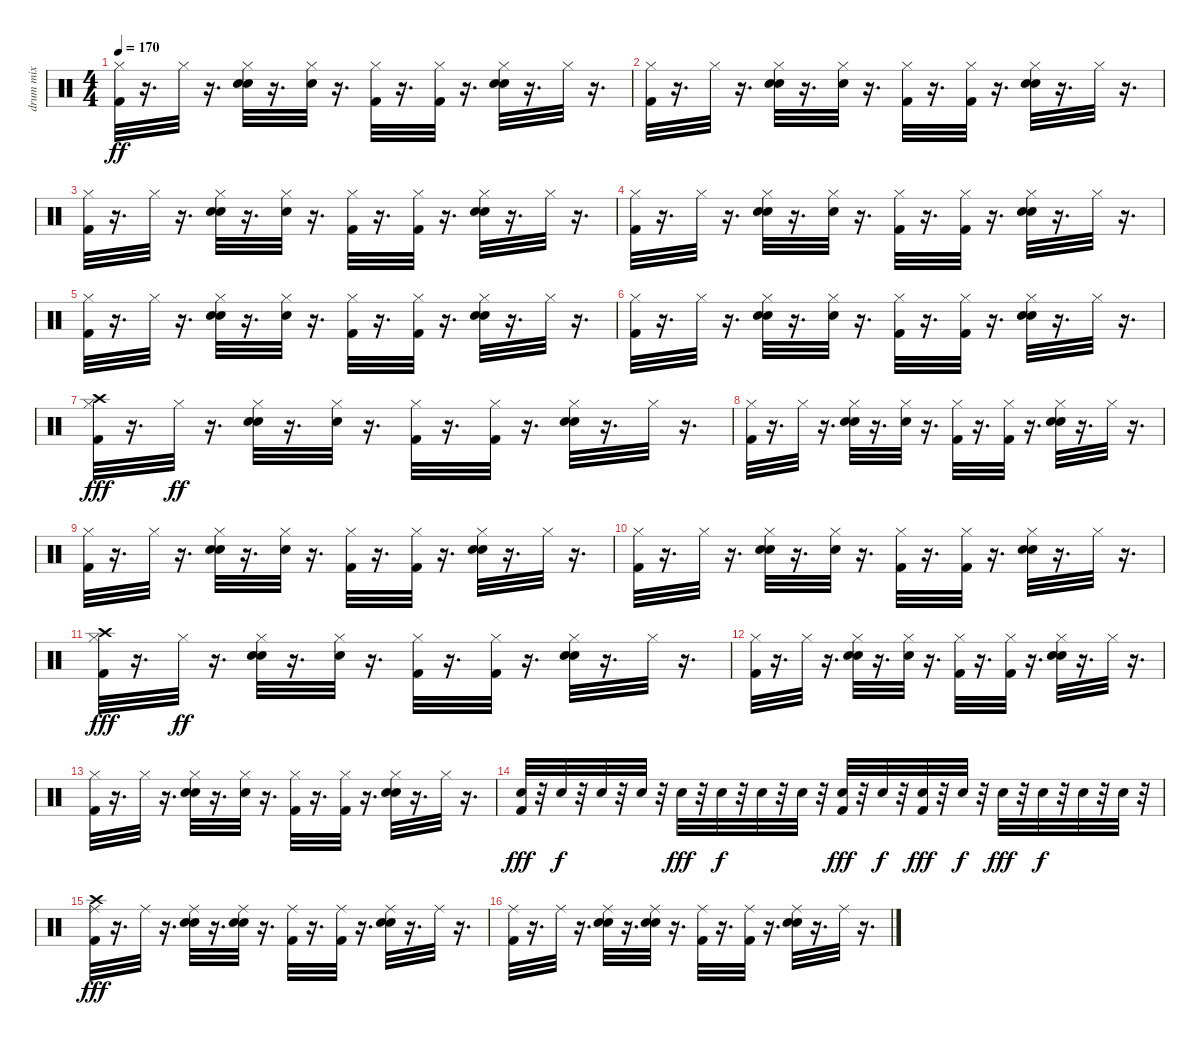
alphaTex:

\track ("drum mix" "drum mix") {instrument percussion}
\staff {score}
\articulation defaults
\ts (4 4)
\tempo 170
\clef neutral
\ks c
("Kick (hit) 2" "Hi-Hat (closed)").32{dy ff} r.16{d} "Hi-Hat (closed)".32 r.16{d} ("Snare (hit) 2" "Hand Clap (hit)" "Hi-Hat (closed)").32 r.16{d} ("Snare (hit) 2" "Hi-Hat (closed)").32 r.16{d} ("Kick (hit) 2" "Hi-Hat (closed)").32 r.16{d} ("Kick (hit) 2" "Hi-Hat (closed)").32 r.16{d} ("Snare (hit) 2" "Hand Clap (hit)" "Hi-Hat (closed)").32 r.16{d} "Hi-Hat (closed)".32 r.16{d} |
("Kick (hit) 2" "Hi-Hat (closed)").32 r.16{d} "Hi-Hat (closed)".32 r.16{d} ("Snare (hit) 2" "Hand Clap (hit)" "Hi-Hat (closed)").32 r.16{d} ("Snare (hit) 2" "Hi-Hat (closed)").32 r.16{d} ("Kick (hit) 2" "Hi-Hat (closed)").32 r.16{d} ("Kick (hit) 2" "Hi-Hat (closed)").32 r.16{d} ("Snare (hit) 2" "Hand Clap (hit)" "Hi-Hat (closed)").32 r.16{d} "Hi-Hat (closed)".32 r.16{d} |
("Kick (hit) 2" "Hi-Hat (closed)").32 r.16{d} "Hi-Hat (closed)".32 r.16{d} ("Snare (hit) 2" "Hand Clap (hit)" "Hi-Hat (closed)").32 r.16{d} ("Snare (hit) 2" "Hi-Hat (closed)").32 r.16{d} ("Kick (hit) 2" "Hi-Hat (closed)").32 r.16{d} ("Kick (hit) 2" "Hi-Hat (closed)").32 r.16{d} ("Snare (hit) 2" "Hand Clap (hit)" "Hi-Hat (closed)").32 r.16{d} "Hi-Hat (closed)".32 r.16{d} |
("Kick (hit) 2" "Hi-Hat (closed)").32 r.16{d} "Hi-Hat (closed)".32 r.16{d} ("Snare (hit) 2" "Hand Clap (hit)" "Hi-Hat (closed)").32 r.16{d} ("Snare (hit) 2" "Hi-Hat (closed)").32 r.16{d} ("Kick (hit) 2" "Hi-Hat (closed)").32 r.16{d} ("Kick (hit) 2" "Hi-Hat (closed)").32 r.16{d} ("Snare (hit) 2" "Hand Clap (hit)" "Hi-Hat (closed)").32 r.16{d} "Hi-Hat (closed)".32 r.16{d} |
("Kick (hit) 2" "Hi-Hat (closed)").32 r.16{d} "Hi-Hat (closed)".32 r.16{d} ("Snare (hit) 2" "Hand Clap (hit)" "Hi-Hat (closed)").32 r.16{d} ("Snare (hit) 2" "Hi-Hat (closed)").32 r.16{d} ("Kick (hit) 2" "Hi-Hat (closed)").32 r.16{d} ("Kick (hit) 2" "Hi-Hat (closed)").32 r.16{d} ("Snare (hit) 2" "Hand Clap (hit)" "Hi-Hat (closed)").32 r.16{d} "Hi-Hat (closed)".32 r.16{d} |
("Kick (hit) 2" "Hi-Hat (closed)").32 r.16{d} "Hi-Hat (closed)".32 r.16{d} ("Snare (hit) 2" "Hand Clap (hit)" "Hi-Hat (closed)").32 r.16{d} ("Snare (hit) 2" "Hi-Hat (closed)").32 r.16{d} ("Kick (hit) 2" "Hi-Hat (closed)").32 r.16{d} ("Kick (hit) 2" "Hi-Hat (closed)").32 r.16{d} ("Snare (hit) 2" "Hand Clap (hit)" "Hi-Hat (closed)").32 r.16{d} "Hi-Hat (closed)".32 r.16{d} |
("Kick (hit) 2" "Hi-Hat (closed)" "Crash high (hit)").32{dy fff} r.16{d} "Hi-Hat (closed)".32{dy ff} r.16{d} ("Snare (hit) 2" "Hand Clap (hit)" "Hi-Hat (closed)").32 r.16{d} ("Snare (hit) 2" "Hi-Hat (closed)").32 r.16{d} ("Kick (hit) 2" "Hi-Hat (closed)").32 r.16{d} ("Kick (hit) 2" "Hi-Hat (closed)").32 r.16{d} ("Snare (hit) 2" "Hand Clap (hit)" "Hi-Hat (closed)").32 r.16{d} "Hi-Hat (closed)".32 r.16{d} |
("Kick (hit) 2" "Hi-Hat (closed)").32 r.16{d} "Hi-Hat (closed)".32 r.16{d} ("Snare (hit) 2" "Hand Clap (hit)" "Hi-Hat (closed)").32 r.16{d} ("Snare (hit) 2" "Hi-Hat (closed)").32 r.16{d} ("Kick (hit) 2" "Hi-Hat (closed)").32 r.16{d} ("Kick (hit) 2" "Hi-Hat (closed)").32 r.16{d} ("Snare (hit) 2" "Hand Clap (hit)" "Hi-Hat (closed)").32 r.16{d} "Hi-Hat (closed)".32 r.16{d} |
("Kick (hit) 2" "Hi-Hat (closed)").32 r.16{d} "Hi-Hat (closed)".32 r.16{d} ("Snare (hit) 2" "Hand Clap (hit)" "Hi-Hat (closed)").32 r.16{d} ("Snare (hit) 2" "Hi-Hat (closed)").32 r.16{d} ("Kick (hit) 2" "Hi-Hat (closed)").32 r.16{d} ("Kick (hit) 2" "Hi-Hat (closed)").32 r.16{d} ("Snare (hit) 2" "Hand Clap (hit)" "Hi-Hat (closed)").32 r.16{d} "Hi-Hat (closed)".32 r.16{d} |
("Kick (hit) 2" "Hi-Hat (closed)").32 r.16{d} "Hi-Hat (closed)".32 r.16{d} ("Snare (hit) 2" "Hand Clap (hit)" "Hi-Hat (closed)").32 r.16{d} ("Snare (hit) 2" "Hi-Hat (closed)").32 r.16{d} ("Kick (hit) 2" "Hi-Hat (closed)").32 r.16{d} ("Kick (hit) 2" "Hi-Hat (closed)").32 r.16{d} ("Snare (hit) 2" "Hand Clap (hit)" "Hi-Hat (closed)").32 r.16{d} "Hi-Hat (closed)".32 r.16{d} |
("Kick (hit) 2" "Hi-Hat (closed)" "Crash high (hit)").32{dy fff} r.16{d} "Hi-Hat (closed)".32{dy ff} r.16{d} ("Snare (hit) 2" "Hand Clap (hit)" "Hi-Hat (closed)").32 r.16{d} ("Snare (hit) 2" "Hi-Hat (closed)").32 r.16{d} ("Kick (hit) 2" "Hi-Hat (closed)").32 r.16{d} ("Kick (hit) 2" "Hi-Hat (closed)").32 r.16{d} ("Snare (hit) 2" "Hand Clap (hit)" "Hi-Hat (closed)").32 r.16{d} "Hi-Hat (closed)".32 r.16{d} |
("Kick (hit) 2" "Hi-Hat (closed)").32 r.16{d} "Hi-Hat (closed)".32 r.16{d} ("Snare (hit) 2" "Hand Clap (hit)" "Hi-Hat (closed)").32 r.16{d} ("Snare (hit) 2" "Hi-Hat (closed)").32 r.16{d} ("Kick (hit) 2" "Hi-Hat (closed)").32 r.16{d} ("Kick (hit) 2" "Hi-Hat (closed)").32 r.16{d} ("Snare (hit) 2" "Hand Clap (hit)" "Hi-Hat (closed)").32 r.16{d} "Hi-Hat (closed)".32 r.16{d} |
("Kick (hit) 2" "Hi-Hat (closed)").32 r.16{d} "Hi-Hat (closed)".32 r.16{d} ("Snare (hit) 2" "Hand Clap (hit)" "Hi-Hat (closed)").32 r.16{d} ("Snare (hit) 2" "Hi-Hat (closed)").32 r.16{d} ("Kick (hit) 2" "Hi-Hat (closed)").32 r.16{d} ("Kick (hit) 2" "Hi-Hat (closed)").32 r.16{d} ("Snare (hit) 2" "Hand Clap (hit)" "Hi-Hat (closed)").32 r.16{d} "Hi-Hat (closed)".32 r.16{d} |
("Kick (hit) 2" "Snare (hit) 2").32{dy fff} r.32 "Snare (hit) 2".32{dy f} r.32 "Snare (hit) 2".32 r.32 "Snare (hit) 2".32 r.32 "Snare (hit) 2".32{dy fff} r.32 "Snare (hit) 2".32{dy f} r.32 "Snare (hit) 2".32 r.32 "Snare (hit) 2".32 r.32 ("Kick (hit) 2" "Snare (hit) 2").32{dy fff} r.32 "Snare (hit) 2".32{dy f} r.32 ("Kick (hit) 2" "Snare (hit) 2").32{dy fff} r.32 "Snare (hit) 2".32{dy f} r.32 "Snare (hit) 2".32{dy fff} r.32 "Snare (hit) 2".32{dy f} r.32 "Snare (hit) 2".32 r.32 "Snare (hit) 2".32 r.32 |
("Kick (hit) 2" "Crash high (hit)" "Ride (middle)").32{dy fff} r.16{d} "Ride (middle)".32 r.16{d} ("Snare (hit) 2" "Hand Clap (hit)" "Ride (middle)").32 r.16{d} ("Snare (hit) 2" "Hand Clap (hit)" "Ride (middle)").32 r.16{d} ("Kick (hit) 2" "Ride (middle)").32 r.16{d} ("Kick (hit) 2" "Ride (middle)").32 r.16{d} ("Snare (hit) 2" "Hand Clap (hit)" "Ride (middle)").32 r.16{d} "Ride (middle)".32 r.16{d} |
("Kick (hit) 2" "Ride (middle)").32 r.16{d} "Ride (middle)".32 r.16{d} ("Snare (hit) 2" "Hand Clap (hit)" "Ride (middle)").32 r.16{d} ("Snare (hit) 2" "Hand Clap (hit)" "Ride (middle)").32 r.16{d} ("Kick (hit) 2" "Ride (middle)").32 r.16{d} ("Kick (hit) 2" "Ride (middle)").32 r.16{d} ("Snare (hit) 2" "Hand Clap (hit)" "Ride (middle)").32 r.16{d} "Ride (middle)".32 r.16{d}
